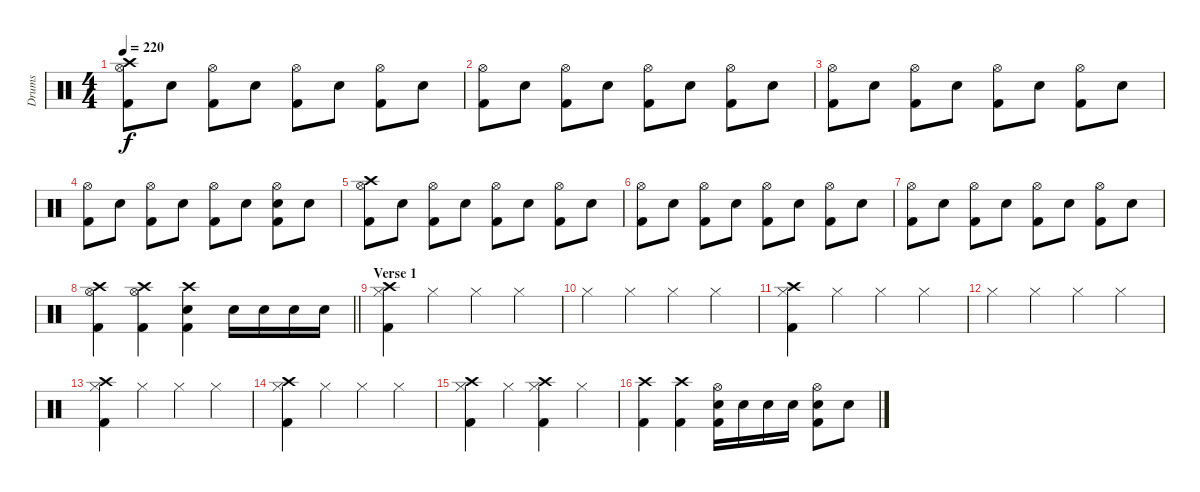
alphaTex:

\track ("Drums" "Drums") {instrument percussion}
\staff {score}
\articulation defaults
\ts (4 4)
\tempo 220
\clef neutral
\ks c
("Crash high (hit)" "Hi-Hat (open)" "Kick (hit) 2").8{dy f} "Snare (hit) 2".8 ("Hi-Hat (open)" "Kick (hit) 2").8 "Snare (hit) 2".8 ("Hi-Hat (open)" "Kick (hit) 2").8 "Snare (hit) 2".8 ("Hi-Hat (open)" "Kick (hit) 2").8 "Snare (hit) 2".8 |
("Hi-Hat (open)" "Kick (hit) 2").8 "Snare (hit) 2".8 ("Hi-Hat (open)" "Kick (hit) 2").8 "Snare (hit) 2".8 ("Hi-Hat (open)" "Kick (hit) 2").8 "Snare (hit) 2".8 ("Hi-Hat (open)" "Kick (hit) 2").8 "Snare (hit) 2".8 |
("Hi-Hat (open)" "Kick (hit) 2").8 "Snare (hit) 2".8 ("Hi-Hat (open)" "Kick (hit) 2").8 "Snare (hit) 2".8 ("Hi-Hat (open)" "Kick (hit) 2").8 "Snare (hit) 2".8 ("Hi-Hat (open)" "Kick (hit) 2").8 "Snare (hit) 2".8 |
("Hi-Hat (open)" "Kick (hit) 2").8 "Snare (hit) 2".8 ("Hi-Hat (open)" "Kick (hit) 2").8 "Snare (hit) 2".8 ("Hi-Hat (open)" "Kick (hit) 2").8 "Snare (hit) 2".8 ("Hi-Hat (open)" "Snare (hit) 2" "Kick (hit) 2").8 "Snare (hit) 2".8 |
("Crash high (hit)" "Hi-Hat (open)" "Kick (hit) 2").8 "Snare (hit) 2".8 ("Hi-Hat (open)" "Kick (hit) 2").8 "Snare (hit) 2".8 ("Hi-Hat (open)" "Kick (hit) 2").8 "Snare (hit) 2".8 ("Hi-Hat (open)" "Kick (hit) 2").8 "Snare (hit) 2".8 |
("Hi-Hat (open)" "Kick (hit) 2").8 "Snare (hit) 2".8 ("Hi-Hat (open)" "Kick (hit) 2").8 "Snare (hit) 2".8 ("Hi-Hat (open)" "Kick (hit) 2").8 "Snare (hit) 2".8 ("Hi-Hat (open)" "Kick (hit) 2").8 "Snare (hit) 2".8 |
("Hi-Hat (open)" "Kick (hit) 2").8 "Snare (hit) 2".8 ("Hi-Hat (open)" "Kick (hit) 2").8 "Snare (hit) 2".8 ("Hi-Hat (open)" "Kick (hit) 2").8 "Snare (hit) 2".8 ("Hi-Hat (open)" "Kick (hit) 2").8 "Snare (hit) 2".8 |
\barLineRight lightlight
("Crash high (hit)" "Hi-Hat (open)" "Kick (hit) 2").4 ("Crash high (hit)" "Hi-Hat (open)" "Kick (hit) 2").4 ("Crash high (hit)" "Snare (hit) 2" "Kick (hit) 2").4 "Snare (hit) 2".16 "Snare (hit) 2".16 "Snare (hit) 2".16 "Snare (hit) 2".16 |
\section ("" "Verse 1")
("Crash high (hit)" "Hi-Hat (closed)" "Kick (hit) 2").4 "Hi-Hat (closed)".4 "Hi-Hat (closed)".4 "Hi-Hat (closed)".4 |
"Hi-Hat (closed)".4 "Hi-Hat (closed)".4 "Hi-Hat (closed)".4 "Hi-Hat (closed)".4 |
("Crash high (hit)" "Hi-Hat (closed)" "Kick (hit) 2").4 "Hi-Hat (closed)".4 "Hi-Hat (closed)".4 "Hi-Hat (closed)".4 |
"Hi-Hat (closed)".4 "Hi-Hat (closed)".4 "Hi-Hat (closed)".4 "Hi-Hat (closed)".4 |
("Crash high (hit)" "Hi-Hat (closed)" "Kick (hit) 2").4 "Hi-Hat (closed)".4 "Hi-Hat (closed)".4 "Hi-Hat (closed)".4 |
("Crash high (hit)" "Hi-Hat (closed)" "Kick (hit) 2").4 "Hi-Hat (closed)".4 "Hi-Hat (closed)".4 "Hi-Hat (closed)".4 |
("Crash high (hit)" "Hi-Hat (closed)" "Kick (hit) 2").4 "Hi-Hat (closed)".4 ("Crash high (hit)" "Hi-Hat (closed)" "Kick (hit) 2").4 "Hi-Hat (closed)".4 |
("Crash high (hit)" "Kick (hit) 2").4 ("Crash high (hit)" "Kick (hit) 2").4 ("Hi-Hat (open)" "Snare (hit) 2" "Kick (hit) 2").16 "Snare (hit) 2".16 "Snare (hit) 2".16 "Snare (hit) 2".16 ("Hi-Hat (open)" "Snare (hit) 2" "Kick (hit) 2").8 "Snare (hit) 2".8
